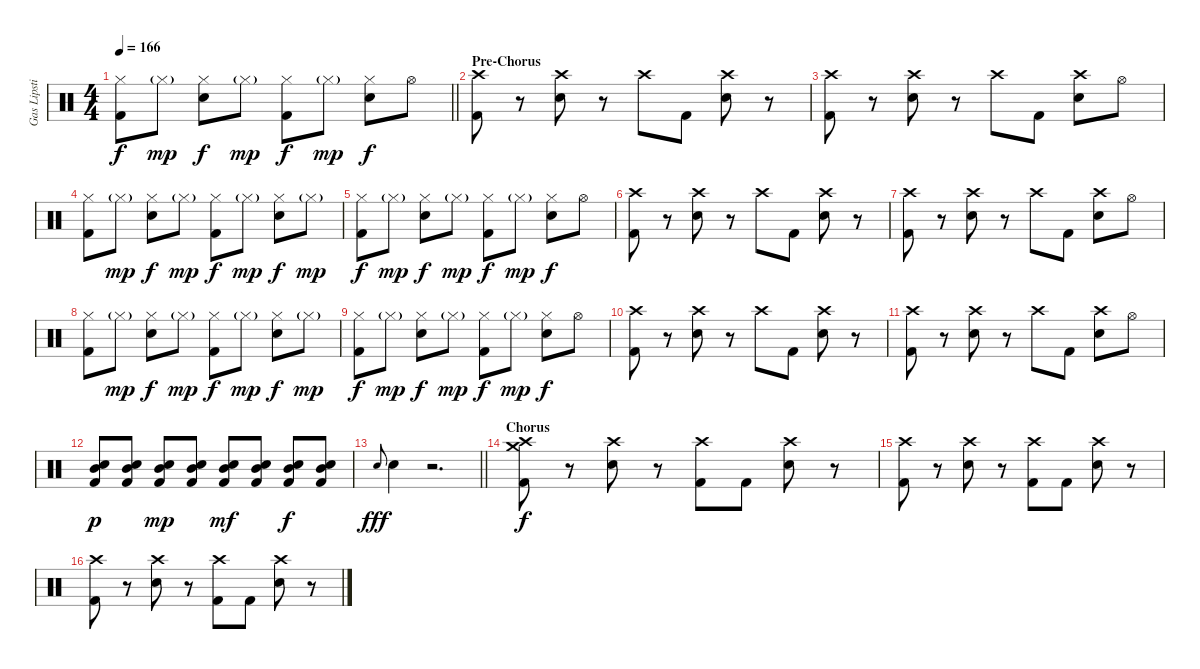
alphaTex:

\track ("Gas Lipstick (Drums)" "Gas Lipsti") {instrument percussion}
\staff {score}
\articulation defaults
\ts (4 4)
\tempo 166
\clef neutral
\barLineRight lightlight
\ks c
("Hi-Hat (closed)" "Kick (hit) 2").8{dy f} "Hi-Hat (closed)"{g}.8{dy mp} ("Hi-Hat (closed)" "Snare (hit) 2").8{dy f} "Hi-Hat (closed)"{g}.8{dy mp} ("Hi-Hat (closed)" "Kick (hit) 2").8{dy f} "Hi-Hat (closed)"{g}.8{dy mp} ("Hi-Hat (closed)" "Snare (hit) 2").8{dy f} "Hi-Hat (open)".8 |
\section ("" "Pre-Chorus")
("Crash high (hit)" "Kick (hit) 2").8 r.8 ("Crash high (hit)" "Snare (hit) 2").8 r.8 "Crash high (hit)".8 "Kick (hit) 2".8 ("Crash high (hit)" "Snare (hit) 2").8 r.8 |
("Crash high (hit)" "Kick (hit) 2").8 r.8 ("Crash high (hit)" "Snare (hit) 2").8 r.8 "Crash high (hit)".8 "Kick (hit) 2".8 ("Crash high (hit)" "Snare (hit) 2").8 "Hi-Hat (open)".8 |
("Hi-Hat (closed)" "Kick (hit) 2").8 "Hi-Hat (closed)"{g}.8{dy mp} ("Hi-Hat (closed)" "Snare (hit) 2").8{dy f} "Hi-Hat (closed)"{g}.8{dy mp} ("Hi-Hat (closed)" "Kick (hit) 2").8{dy f} "Hi-Hat (closed)"{g}.8{dy mp} ("Hi-Hat (closed)" "Snare (hit) 2").8{dy f} "Hi-Hat (closed)"{g}.8{dy mp} |
("Hi-Hat (closed)" "Kick (hit) 2").8{dy f} "Hi-Hat (closed)"{g}.8{dy mp} ("Hi-Hat (closed)" "Snare (hit) 2").8{dy f} "Hi-Hat (closed)"{g}.8{dy mp} ("Hi-Hat (closed)" "Kick (hit) 2").8{dy f} "Hi-Hat (closed)"{g}.8{dy mp} ("Hi-Hat (closed)" "Snare (hit) 2").8{dy f} "Hi-Hat (open)".8 |
("Crash high (hit)" "Kick (hit) 2").8 r.8 ("Crash high (hit)" "Snare (hit) 2").8 r.8 "Crash high (hit)".8 "Kick (hit) 2".8 ("Crash high (hit)" "Snare (hit) 2").8 r.8 |
("Crash high (hit)" "Kick (hit) 2").8 r.8 ("Crash high (hit)" "Snare (hit) 2").8 r.8 "Crash high (hit)".8 "Kick (hit) 2".8 ("Crash high (hit)" "Snare (hit) 2").8 "Hi-Hat (open)".8 |
("Hi-Hat (closed)" "Kick (hit) 2").8 "Hi-Hat (closed)"{g}.8{dy mp} ("Hi-Hat (closed)" "Snare (hit) 2").8{dy f} "Hi-Hat (closed)"{g}.8{dy mp} ("Hi-Hat (closed)" "Kick (hit) 2").8{dy f} "Hi-Hat (closed)"{g}.8{dy mp} ("Hi-Hat (closed)" "Snare (hit) 2").8{dy f} "Hi-Hat (closed)"{g}.8{dy mp} |
("Hi-Hat (closed)" "Kick (hit) 2").8{dy f} "Hi-Hat (closed)"{g}.8{dy mp} ("Hi-Hat (closed)" "Snare (hit) 2").8{dy f} "Hi-Hat (closed)"{g}.8{dy mp} ("Hi-Hat (closed)" "Kick (hit) 2").8{dy f} "Hi-Hat (closed)"{g}.8{dy mp} ("Hi-Hat (closed)" "Snare (hit) 2").8{dy f} "Hi-Hat (open)".8 |
("Crash high (hit)" "Kick (hit) 2").8 r.8 ("Crash high (hit)" "Snare (hit) 2").8 r.8 "Crash high (hit)".8 "Kick (hit) 2".8 ("Crash high (hit)" "Snare (hit) 2").8 r.8 |
("Crash high (hit)" "Kick (hit) 2").8 r.8 ("Crash high (hit)" "Snare (hit) 2").8 r.8 "Crash high (hit)".8 "Kick (hit) 2".8 ("Crash high (hit)" "Snare (hit) 2").8 "Hi-Hat (open)".8 |
("Mid Tom (hit)" "Snare (hit) 2" "Kick (hit) 2").8{dy p} ("Mid Tom (hit)" "Snare (hit) 2" "Kick (hit) 2").8 ("Mid Tom (hit)" "Snare (hit) 2" "Kick (hit) 2").8{dy mp} ("Mid Tom (hit)" "Snare (hit) 2" "Kick (hit) 2").8 ("Mid Tom (hit)" "Snare (hit) 2" "Kick (hit) 2").8{dy mf} ("Mid Tom (hit)" "Snare (hit) 2" "Kick (hit) 2").8 ("Mid Tom (hit)" "Snare (hit) 2" "Kick (hit) 2").8{dy f} ("Mid Tom (hit)" "Snare (hit) 2" "Kick (hit) 2").8 |
\barLineRight lightlight "Snare (hit) 2".8{gr onbeat dy fff} "Snare (hit) 2".4
r.2{d} |
\section ("" "Chorus")
("Crash medium (hit)" "Crash high (hit)" "Kick (hit) 2").8{dy f} r.8 ("Crash high (hit)" "Snare (hit) 2").8 r.8 ("Crash high (hit)" "Kick (hit) 2").8 "Kick (hit) 2".8 ("Crash high (hit)" "Snare (hit) 2").8 r.8 |
("Crash high (hit)" "Kick (hit) 2").8 r.8 ("Crash high (hit)" "Snare (hit) 2").8 r.8 ("Crash high (hit)" "Kick (hit) 2").8 "Kick (hit) 2".8 ("Crash high (hit)" "Snare (hit) 2").8 r.8 |
("Crash high (hit)" "Kick (hit) 2").8 r.8 ("Crash high (hit)" "Snare (hit) 2").8 r.8 ("Crash high (hit)" "Kick (hit) 2").8 "Kick (hit) 2".8 ("Crash high (hit)" "Snare (hit) 2").8 r.8
